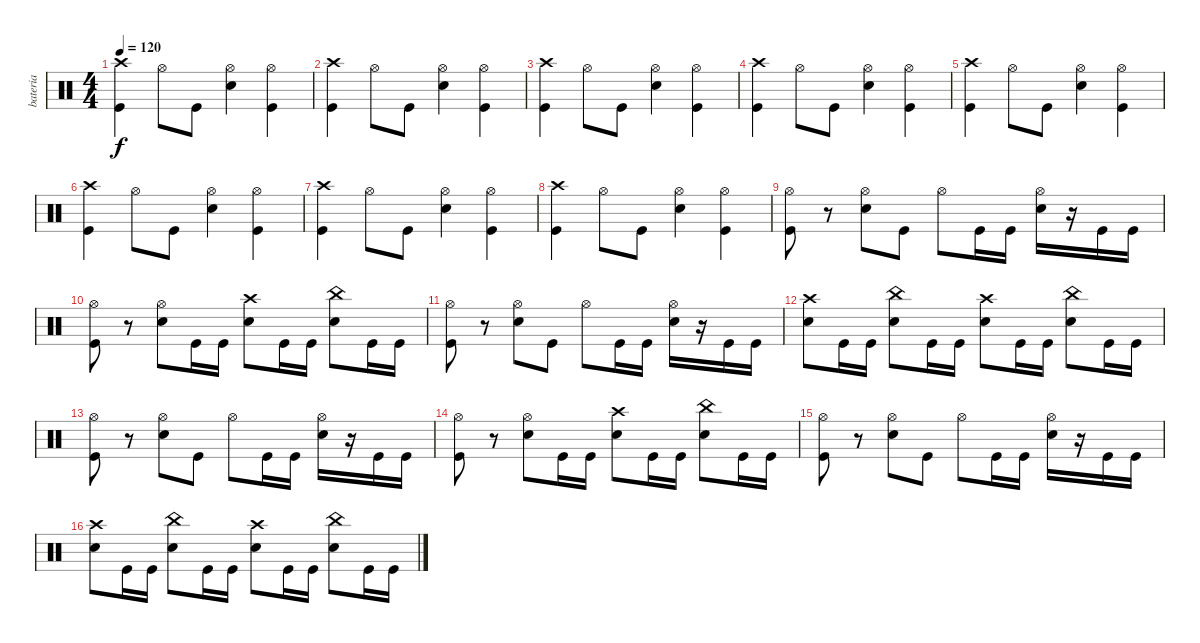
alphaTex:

\track ("bateria" "bateria") {instrument percussion}
\staff {score}
\articulation defaults
\ts (4 4)
\tempo 120
\clef neutral
\ks c
("Crash high (hit)" "Kick (hit)").4{dy f} "Hi-Hat (open)".8 "Kick (hit)".8 ("Hi-Hat (open)" "Electric Snare (hit)").4 ("Hi-Hat (open)" "Kick (hit)").4 |
("Crash high (hit)" "Kick (hit)").4 "Hi-Hat (open)".8 "Kick (hit)".8 ("Hi-Hat (open)" "Electric Snare (hit)").4 ("Hi-Hat (open)" "Kick (hit)").4 |
("Crash high (hit)" "Kick (hit)").4 "Hi-Hat (open)".8 "Kick (hit)".8 ("Hi-Hat (open)" "Electric Snare (hit)").4 ("Hi-Hat (open)" "Kick (hit)").4 |
("Crash high (hit)" "Kick (hit)").4 "Hi-Hat (open)".8 "Kick (hit)".8 ("Hi-Hat (open)" "Electric Snare (hit)").4 ("Hi-Hat (open)" "Kick (hit)").4 |
("Crash high (hit)" "Kick (hit)").4 "Hi-Hat (open)".8 "Kick (hit)".8 ("Hi-Hat (open)" "Electric Snare (hit)").4 ("Hi-Hat (open)" "Kick (hit)").4 |
("Crash high (hit)" "Kick (hit)").4 "Hi-Hat (open)".8 "Kick (hit)".8 ("Hi-Hat (open)" "Electric Snare (hit)").4 ("Hi-Hat (open)" "Kick (hit)").4 |
("Crash high (hit)" "Kick (hit)").4 "Hi-Hat (open)".8 "Kick (hit)".8 ("Hi-Hat (open)" "Electric Snare (hit)").4 ("Hi-Hat (open)" "Kick (hit)").4 |
("Crash high (hit)" "Kick (hit)").4 "Hi-Hat (open)".8 "Kick (hit)".8 ("Hi-Hat (open)" "Electric Snare (hit)").4 ("Hi-Hat (open)" "Kick (hit)").4 |
("Hi-Hat (open)" "Kick (hit)").8 r.8 ("Hi-Hat (open)" "Electric Snare (hit)").8 "Kick (hit)".8 "Hi-Hat (open)".8 "Kick (hit)".16 "Kick (hit)".16 ("Hi-Hat (open)" "Electric Snare (hit)").16 r.16 "Kick (hit)".16 "Kick (hit)".16 |
("Hi-Hat (open)" "Kick (hit)").8 r.8 ("Hi-Hat (open)" "Electric Snare (hit)").8 "Kick (hit)".16 "Kick (hit)".16 ("Crash high (hit)" "Electric Snare (hit)").8 "Kick (hit)".16 "Kick (hit)".16 ("China (hit)" "Electric Snare (hit)").8 "Kick (hit)".16 "Kick (hit)".16 |
("Hi-Hat (open)" "Kick (hit)").8 r.8 ("Hi-Hat (open)" "Electric Snare (hit)").8 "Kick (hit)".8 "Hi-Hat (open)".8 "Kick (hit)".16 "Kick (hit)".16 ("Hi-Hat (open)" "Electric Snare (hit)").16 r.16 "Kick (hit)".16 "Kick (hit)".16 |
("Crash high (hit)" "Electric Snare (hit)").8 "Kick (hit)".16 "Kick (hit)".16 ("China (hit)" "Electric Snare (hit)").8 "Kick (hit)".16 "Kick (hit)".16 ("Crash high (hit)" "Electric Snare (hit)").8 "Kick (hit)".16 "Kick (hit)".16 ("China (hit)" "Electric Snare (hit)").8 "Kick (hit)".16 "Kick (hit)".16 |
("Hi-Hat (open)" "Kick (hit)").8 r.8 ("Hi-Hat (open)" "Electric Snare (hit)").8 "Kick (hit)".8 "Hi-Hat (open)".8 "Kick (hit)".16 "Kick (hit)".16 ("Hi-Hat (open)" "Electric Snare (hit)").16 r.16 "Kick (hit)".16 "Kick (hit)".16 |
("Hi-Hat (open)" "Kick (hit)").8 r.8 ("Hi-Hat (open)" "Electric Snare (hit)").8 "Kick (hit)".16 "Kick (hit)".16 ("Crash high (hit)" "Electric Snare (hit)").8 "Kick (hit)".16 "Kick (hit)".16 ("China (hit)" "Electric Snare (hit)").8 "Kick (hit)".16 "Kick (hit)".16 |
("Hi-Hat (open)" "Kick (hit)").8 r.8 ("Hi-Hat (open)" "Electric Snare (hit)").8 "Kick (hit)".8 "Hi-Hat (open)".8 "Kick (hit)".16 "Kick (hit)".16 ("Hi-Hat (open)" "Electric Snare (hit)").16 r.16 "Kick (hit)".16 "Kick (hit)".16 |
("Crash high (hit)" "Electric Snare (hit)").8 "Kick (hit)".16 "Kick (hit)".16 ("China (hit)" "Electric Snare (hit)").8 "Kick (hit)".16 "Kick (hit)".16 ("Crash high (hit)" "Electric Snare (hit)").8 "Kick (hit)".16 "Kick (hit)".16 ("China (hit)" "Electric Snare (hit)").8 "Kick (hit)".16 "Kick (hit)".16
